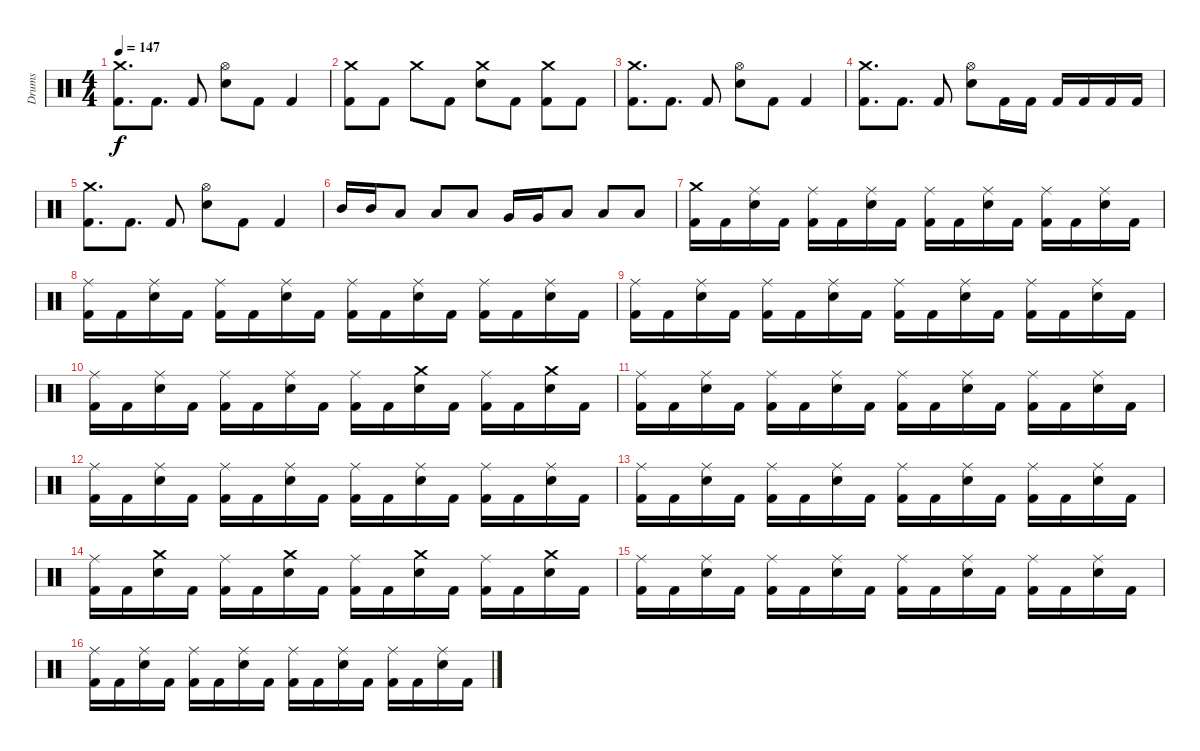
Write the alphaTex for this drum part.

\track ("Drums" "Drums") {instrument percussion}
\staff {score}
\articulation defaults
\ts (4 4)
\tempo 147
\clef neutral
\ks c
("Kick (hit) 2" "Crash medium (hit)").8{d dy f} "Kick (hit) 2".8{d} "Kick (hit) 2".8 ("Snare (hit) 2" "Hi-Hat (open)").8 "Kick (hit) 2".8 "Kick (hit) 2".4 |
("Kick (hit) 2" "Crash medium (hit)").8 "Kick (hit) 2".8 "Crash medium (hit)".8 "Kick (hit) 2".8 ("Snare (hit) 2" "Crash medium (hit)").8 "Kick (hit) 2".8 ("Kick (hit) 2" "Crash medium (hit)").8 "Kick (hit) 2".8 |
("Kick (hit) 2" "Crash medium (hit)").8{d} "Kick (hit) 2".8{d} "Kick (hit) 2".8 ("Snare (hit) 2" "Hi-Hat (open)").8 "Kick (hit) 2".8 "Kick (hit) 2".4 |
("Kick (hit) 2" "Crash medium (hit)").8{d} "Kick (hit) 2".8{d} "Kick (hit) 2".8 ("Snare (hit) 2" "Hi-Hat (open)").8 "Kick (hit) 2".16 "Kick (hit) 2".16 "Kick (hit) 2".16 "Kick (hit) 2".16 "Kick (hit) 2".16 "Kick (hit) 2".16 |
("Kick (hit) 2" "Crash medium (hit)").8{d} "Kick (hit) 2".8{d} "Kick (hit) 2".8 ("Snare (hit) 2" "Hi-Hat (open)").8 "Kick (hit) 2".8 "Kick (hit) 2".4 |
"Mid Tom (hit)".16 "Mid Tom (hit)".16 "Low Tom (hit)".8 "Low Tom (hit)".8 "Low Tom (hit)".8 "Very Low Tom (hit)".16 "Very Low Tom (hit)".16 "Low Floor Tom (hit)".8 "Low Floor Tom (hit)".8 "Low Floor Tom (hit)".8 |
("Kick (hit) 2" "Crash medium (hit)").16 "Kick (hit) 2".16 ("Snare (hit) 2" "Ride (middle)").16 "Kick (hit) 2".16 ("Kick (hit) 2" "Ride (middle)").16 "Kick (hit) 2".16 ("Snare (hit) 2" "Ride (middle)").16 "Kick (hit) 2".16 ("Kick (hit) 2" "Ride (middle)").16 "Kick (hit) 2".16 ("Snare (hit) 2" "Ride (middle)").16 "Kick (hit) 2".16 ("Kick (hit) 2" "Ride (middle)").16 "Kick (hit) 2".16 ("Snare (hit) 2" "Ride (middle)").16 "Kick (hit) 2".16 |
("Kick (hit) 2" "Ride (middle)").16 "Kick (hit) 2".16 ("Snare (hit) 2" "Ride (middle)").16 "Kick (hit) 2".16 ("Kick (hit) 2" "Ride (middle)").16 "Kick (hit) 2".16 ("Snare (hit) 2" "Ride (middle)").16 "Kick (hit) 2".16 ("Kick (hit) 2" "Ride (middle)").16 "Kick (hit) 2".16 ("Snare (hit) 2" "Ride (middle)").16 "Kick (hit) 2".16 ("Kick (hit) 2" "Ride (middle)").16 "Kick (hit) 2".16 ("Snare (hit) 2" "Ride (middle)").16 "Kick (hit) 2".16 |
("Kick (hit) 2" "Ride (middle)").16 "Kick (hit) 2".16 ("Snare (hit) 2" "Ride (middle)").16 "Kick (hit) 2".16 ("Kick (hit) 2" "Ride (middle)").16 "Kick (hit) 2".16 ("Snare (hit) 2" "Ride (middle)").16 "Kick (hit) 2".16 ("Kick (hit) 2" "Ride (middle)").16 "Kick (hit) 2".16 ("Snare (hit) 2" "Ride (middle)").16 "Kick (hit) 2".16 ("Kick (hit) 2" "Ride (middle)").16 "Kick (hit) 2".16 ("Snare (hit) 2" "Ride (middle)").16 "Kick (hit) 2".16 |
("Kick (hit) 2" "Ride (middle)").16 "Kick (hit) 2".16 ("Snare (hit) 2" "Ride (middle)").16 "Kick (hit) 2".16 ("Kick (hit) 2" "Ride (middle)").16 "Kick (hit) 2".16 ("Snare (hit) 2" "Ride (middle)").16 "Kick (hit) 2".16 ("Kick (hit) 2" "Ride (middle)").16 "Kick (hit) 2".16 ("Snare (hit) 2" "Crash medium (hit)").16 "Kick (hit) 2".16 ("Kick (hit) 2" "Ride (middle)").16 "Kick (hit) 2".16 ("Snare (hit) 2" "Crash medium (hit)").16 "Kick (hit) 2".16 |
("Kick (hit) 2" "Ride (middle)").16 "Kick (hit) 2".16 ("Snare (hit) 2" "Ride (middle)").16 "Kick (hit) 2".16 ("Kick (hit) 2" "Ride (middle)").16 "Kick (hit) 2".16 ("Snare (hit) 2" "Ride (middle)").16 "Kick (hit) 2".16 ("Kick (hit) 2" "Ride (middle)").16 "Kick (hit) 2".16 ("Snare (hit) 2" "Ride (middle)").16 "Kick (hit) 2".16 ("Kick (hit) 2" "Ride (middle)").16 "Kick (hit) 2".16 ("Snare (hit) 2" "Ride (middle)").16 "Kick (hit) 2".16 |
("Kick (hit) 2" "Ride (middle)").16 "Kick (hit) 2".16 ("Snare (hit) 2" "Ride (middle)").16 "Kick (hit) 2".16 ("Kick (hit) 2" "Ride (middle)").16 "Kick (hit) 2".16 ("Snare (hit) 2" "Ride (middle)").16 "Kick (hit) 2".16 ("Kick (hit) 2" "Ride (middle)").16 "Kick (hit) 2".16 ("Snare (hit) 2" "Ride (middle)").16 "Kick (hit) 2".16 ("Kick (hit) 2" "Ride (middle)").16 "Kick (hit) 2".16 ("Snare (hit) 2" "Ride (middle)").16 "Kick (hit) 2".16 |
("Kick (hit) 2" "Ride (middle)").16 "Kick (hit) 2".16 ("Snare (hit) 2" "Ride (middle)").16 "Kick (hit) 2".16 ("Kick (hit) 2" "Ride (middle)").16 "Kick (hit) 2".16 ("Snare (hit) 2" "Ride (middle)").16 "Kick (hit) 2".16 ("Kick (hit) 2" "Ride (middle)").16 "Kick (hit) 2".16 ("Snare (hit) 2" "Ride (middle)").16 "Kick (hit) 2".16 ("Kick (hit) 2" "Ride (middle)").16 "Kick (hit) 2".16 ("Snare (hit) 2" "Ride (middle)").16 "Kick (hit) 2".16 |
("Kick (hit) 2" "Ride (middle)").16 "Kick (hit) 2".16 ("Snare (hit) 2" "Crash medium (hit)").16 "Kick (hit) 2".16 ("Kick (hit) 2" "Ride (middle)").16 "Kick (hit) 2".16 ("Snare (hit) 2" "Crash medium (hit)").16 "Kick (hit) 2".16 ("Kick (hit) 2" "Ride (middle)").16 "Kick (hit) 2".16 ("Snare (hit) 2" "Crash medium (hit)").16 "Kick (hit) 2".16 ("Kick (hit) 2" "Ride (middle)").16 "Kick (hit) 2".16 ("Snare (hit) 2" "Crash medium (hit)").16 "Kick (hit) 2".16 |
("Kick (hit) 2" "Ride (middle)").16 "Kick (hit) 2".16 ("Snare (hit) 2" "Ride (middle)").16 "Kick (hit) 2".16 ("Kick (hit) 2" "Ride (middle)").16 "Kick (hit) 2".16 ("Snare (hit) 2" "Ride (middle)").16 "Kick (hit) 2".16 ("Kick (hit) 2" "Ride (middle)").16 "Kick (hit) 2".16 ("Snare (hit) 2" "Ride (middle)").16 "Kick (hit) 2".16 ("Kick (hit) 2" "Ride (middle)").16 "Kick (hit) 2".16 ("Snare (hit) 2" "Ride (middle)").16 "Kick (hit) 2".16 |
("Kick (hit) 2" "Ride (middle)").16 "Kick (hit) 2".16 ("Snare (hit) 2" "Ride (middle)").16 "Kick (hit) 2".16 ("Kick (hit) 2" "Ride (middle)").16 "Kick (hit) 2".16 ("Snare (hit) 2" "Ride (middle)").16 "Kick (hit) 2".16 ("Kick (hit) 2" "Ride (middle)").16 "Kick (hit) 2".16 ("Snare (hit) 2" "Ride (middle)").16 "Kick (hit) 2".16 ("Kick (hit) 2" "Ride (middle)").16 "Kick (hit) 2".16 ("Snare (hit) 2" "Ride (middle)").16 "Kick (hit) 2".16
